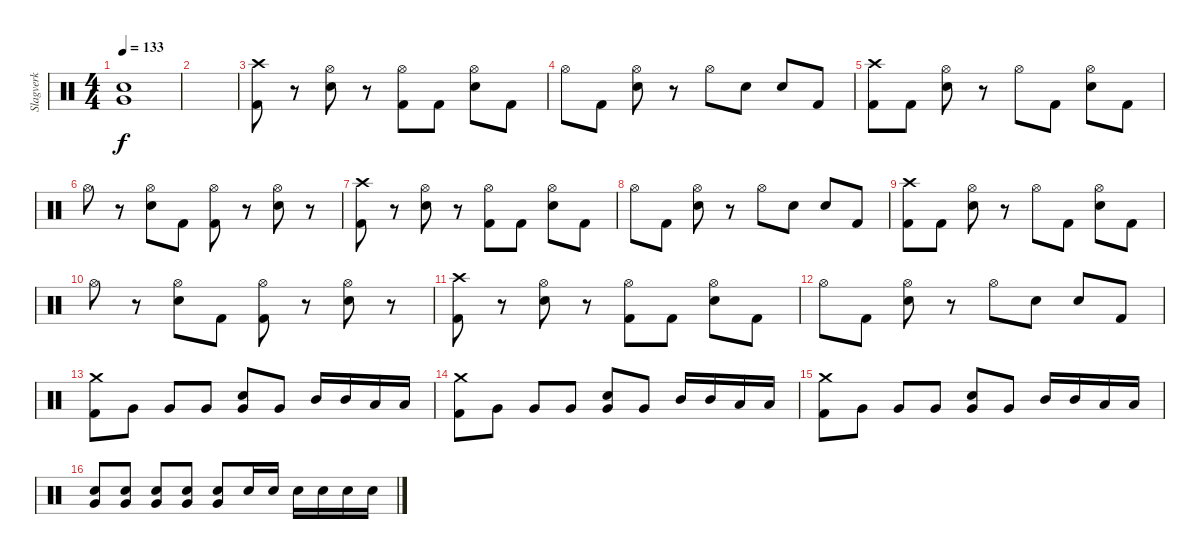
\track ("Slagverk" "Slagverk") {instrument percussion}
\staff {score}
\articulation defaults
\ts (4 4)
\tempo 133
\clef neutral
\ks c
("Snare (hit) 2" "Very Low Tom (hit)").1{dy f} |
|
("Crash high (hit)" "Kick (hit) 2").8 r.8 ("Hi-Hat (open)" "Snare (hit) 2").8 r.8 ("Hi-Hat (open)" "Kick (hit) 2").8 "Kick (hit) 2".8 ("Hi-Hat (open)" "Snare (hit) 2").8 "Kick (hit) 2".8 |
"Hi-Hat (open)".8 "Kick (hit) 2".8 ("Hi-Hat (open)" "Snare (hit) 2").8 r.8 "Hi-Hat (open)".8 "Snare (hit) 2".8 "Snare (hit) 2".8 "Kick (hit) 2".8 |
("Crash high (hit)" "Kick (hit) 2").8 "Kick (hit) 2".8 ("Hi-Hat (open)" "Snare (hit) 2").8 r.8 "Hi-Hat (open)".8 "Kick (hit) 2".8 ("Hi-Hat (open)" "Snare (hit) 2").8 "Kick (hit) 2".8 |
"Hi-Hat (open)".8 r.8 ("Hi-Hat (open)" "Snare (hit) 2").8 "Kick (hit) 2".8 ("Hi-Hat (open)" "Kick (hit) 2").8 r.8 ("Hi-Hat (open)" "Snare (hit) 2").8 r.8 |
("Crash high (hit)" "Kick (hit) 2").8 r.8 ("Hi-Hat (open)" "Snare (hit) 2").8 r.8 ("Hi-Hat (open)" "Kick (hit) 2").8 "Kick (hit) 2".8 ("Hi-Hat (open)" "Snare (hit) 2").8 "Kick (hit) 2".8 |
"Hi-Hat (open)".8 "Kick (hit) 2".8 ("Hi-Hat (open)" "Snare (hit) 2").8 r.8 "Hi-Hat (open)".8 "Snare (hit) 2".8 "Snare (hit) 2".8 "Kick (hit) 2".8 |
("Crash high (hit)" "Kick (hit) 2").8 "Kick (hit) 2".8 ("Hi-Hat (open)" "Snare (hit) 2").8 r.8 "Hi-Hat (open)".8 "Kick (hit) 2".8 ("Hi-Hat (open)" "Snare (hit) 2").8 "Kick (hit) 2".8 |
"Hi-Hat (open)".8 r.8 ("Hi-Hat (open)" "Snare (hit) 2").8 "Kick (hit) 2".8 ("Hi-Hat (open)" "Kick (hit) 2").8 r.8 ("Hi-Hat (open)" "Snare (hit) 2").8 r.8 |
("Crash high (hit)" "Kick (hit) 2").8 r.8 ("Hi-Hat (open)" "Snare (hit) 2").8 r.8 ("Hi-Hat (open)" "Kick (hit) 2").8 "Kick (hit) 2".8 ("Hi-Hat (open)" "Snare (hit) 2").8 "Kick (hit) 2".8 |
"Hi-Hat (open)".8 "Kick (hit) 2".8 ("Hi-Hat (open)" "Snare (hit) 2").8 r.8 "Hi-Hat (open)".8 "Snare (hit) 2".8 "Snare (hit) 2".8 "Kick (hit) 2".8 |
("Crash medium (hit)" "Kick (hit) 2").8 "Very Low Tom (hit)".8 "Very Low Tom (hit)".8 "Very Low Tom (hit)".8 ("Very Low Tom (hit)" "Snare (hit) 2").8 "Very Low Tom (hit)".8 "Mid Tom (hit)".16 "Mid Tom (hit)".16 "Low Tom (hit)".16 "Low Tom (hit)".16 |
("Crash medium (hit)" "Kick (hit) 2").8 "Very Low Tom (hit)".8 "Very Low Tom (hit)".8 "Very Low Tom (hit)".8 ("Very Low Tom (hit)" "Snare (hit) 2").8 "Very Low Tom (hit)".8 "Mid Tom (hit)".16 "Mid Tom (hit)".16 "Low Tom (hit)".16 "Low Tom (hit)".16 |
("Crash medium (hit)" "Kick (hit) 2").8 "Very Low Tom (hit)".8 "Very Low Tom (hit)".8 "Very Low Tom (hit)".8 ("Very Low Tom (hit)" "Snare (hit) 2").8 "Very Low Tom (hit)".8 "Mid Tom (hit)".16 "Mid Tom (hit)".16 "Low Tom (hit)".16 "Low Tom (hit)".16 |
("Very Low Tom (hit)" "Snare (hit) 2").8 ("Very Low Tom (hit)" "Snare (hit) 2").8 ("Very Low Tom (hit)" "Snare (hit) 2").8 ("Very Low Tom (hit)" "Snare (hit) 2").8 ("Very Low Tom (hit)" "Snare (hit) 2").8 "Snare (hit) 2".16 "Snare (hit) 2".16 "Snare (hit) 2".16 "Snare (hit) 2".16 "Snare (hit) 2".16 "Snare (hit) 2".16
